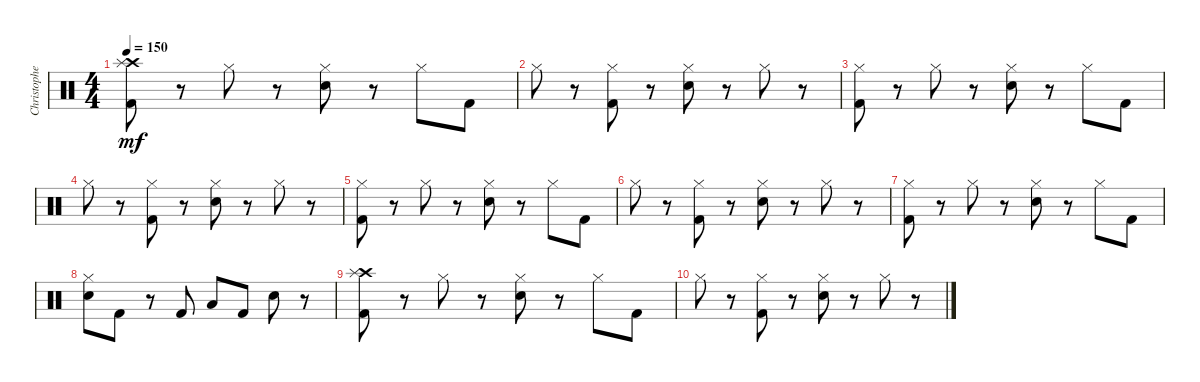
\track ("Christopher" "Christophe") {instrument percussion}
\staff {score}
\articulation defaults
\ts (4 4)
\tempo 150
\clef neutral
\ks c
("Crash high (hit)" "Splash (hit)" "Kick (hit) 2").8{dy mf} r.8 "Hi-Hat (closed)".8 r.8 ("Hi-Hat (closed)" "Electric Snare (hit)").8 r.8 "Hi-Hat (closed)".8 "Kick (hit) 2".8 |
"Hi-Hat (closed)".8 r.8 ("Hi-Hat (closed)" "Kick (hit) 2").8 r.8 ("Hi-Hat (closed)" "Electric Snare (hit)").8 r.8 "Hi-Hat (closed)".8 r.8 |
("Hi-Hat (closed)" "Kick (hit) 2").8 r.8 "Hi-Hat (closed)".8 r.8 ("Hi-Hat (closed)" "Electric Snare (hit)").8 r.8 "Hi-Hat (closed)".8 "Kick (hit) 2".8 |
"Hi-Hat (closed)".8 r.8 ("Hi-Hat (closed)" "Kick (hit) 2").8 r.8 ("Hi-Hat (closed)" "Electric Snare (hit)").8 r.8 "Hi-Hat (closed)".8 r.8 |
("Hi-Hat (closed)" "Kick (hit) 2").8 r.8 "Hi-Hat (closed)".8 r.8 ("Hi-Hat (closed)" "Electric Snare (hit)").8 r.8 "Hi-Hat (closed)".8 "Kick (hit) 2".8 |
"Hi-Hat (closed)".8 r.8 ("Hi-Hat (closed)" "Kick (hit) 2").8 r.8 ("Hi-Hat (closed)" "Electric Snare (hit)").8 r.8 "Hi-Hat (closed)".8 r.8 |
("Hi-Hat (closed)" "Kick (hit) 2").8 r.8 "Hi-Hat (closed)".8 r.8 ("Hi-Hat (closed)" "Electric Snare (hit)").8 r.8 "Hi-Hat (closed)".8 "Kick (hit) 2".8 |
("Hi-Hat (closed)" "Electric Snare (hit)").8 "Kick (hit) 2".8 r.8 "Kick (hit) 2".8 "Low Tom (hit)".8 "Kick (hit) 2".8 "Electric Snare (hit)".8 r.8 |
("Crash high (hit)" "Splash (hit)" "Kick (hit) 2").8 r.8 "Hi-Hat (closed)".8 r.8 ("Hi-Hat (closed)" "Electric Snare (hit)").8 r.8 "Hi-Hat (closed)".8 "Kick (hit) 2".8 |
"Hi-Hat (closed)".8 r.8 ("Hi-Hat (closed)" "Kick (hit) 2").8 r.8 ("Hi-Hat (closed)" "Electric Snare (hit)").8 r.8 "Hi-Hat (closed)".8 r.8
